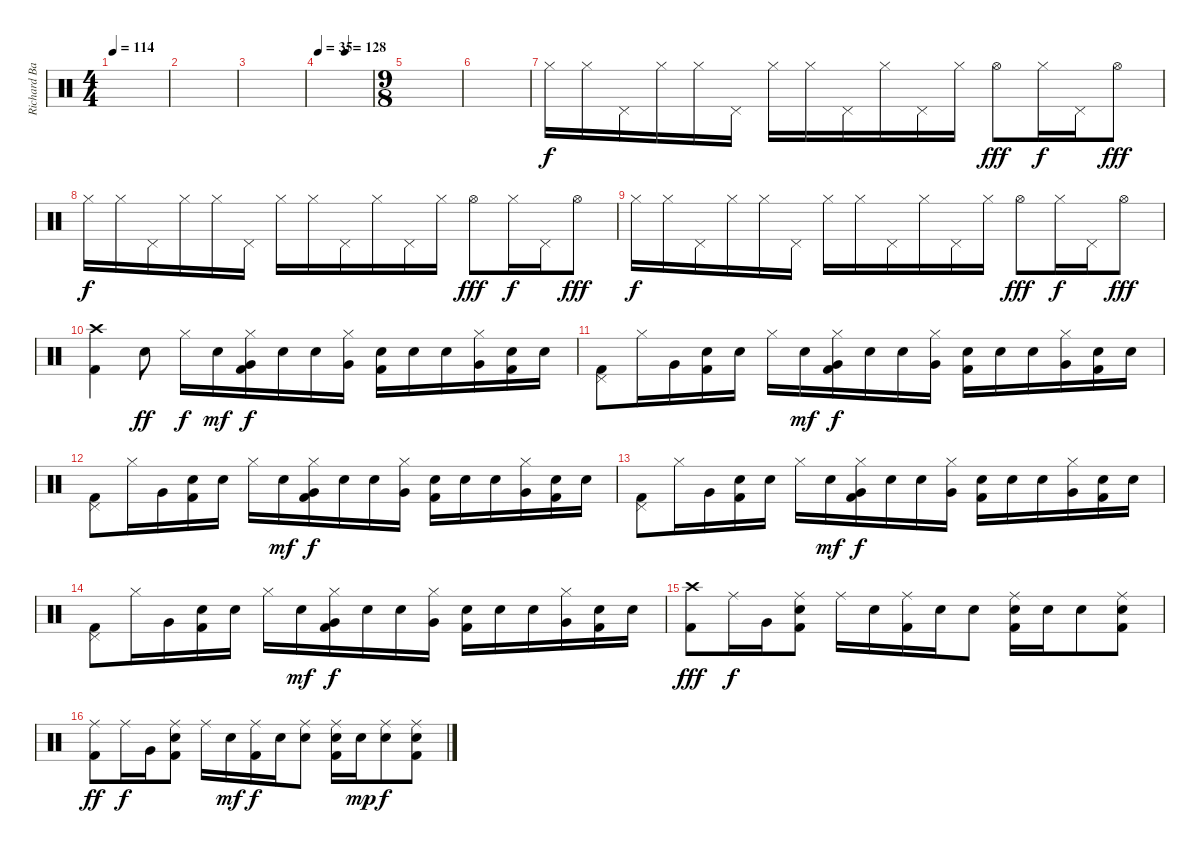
\track ("Richard Bailey" "Richard Ba") {instrument percussion}
\staff {score}
\articulation defaults
\ts (4 4)
\tempo 114
\clef neutral
\ks c
|
|
|
\tempo 35
\tempo (128 0.5)
|
\ts (9 8)
|
|
"Hi-Hat (closed)".16 "Hi-Hat (closed)".16 "Pedal Hi-Hat (hit)".16 "Hi-Hat (closed)".16 "Hi-Hat (closed)".16 "Pedal Hi-Hat (hit)".16 "Hi-Hat (closed)".16 "Hi-Hat (closed)".16 "Pedal Hi-Hat (hit)".16 "Hi-Hat (closed)".16 "Pedal Hi-Hat (hit)".16 "Hi-Hat (closed)".16 "Hi-Hat (open)".8{dy fff} "Hi-Hat (closed)".16{dy f} "Pedal Hi-Hat (hit)".16 "Hi-Hat (open)".8{dy fff} |
"Hi-Hat (closed)".16{dy f} "Hi-Hat (closed)".16 "Pedal Hi-Hat (hit)".16 "Hi-Hat (closed)".16 "Hi-Hat (closed)".16 "Pedal Hi-Hat (hit)".16 "Hi-Hat (closed)".16 "Hi-Hat (closed)".16 "Pedal Hi-Hat (hit)".16 "Hi-Hat (closed)".16 "Pedal Hi-Hat (hit)".16 "Hi-Hat (closed)".16 "Hi-Hat (open)".8{dy fff} "Hi-Hat (closed)".16{dy f} "Pedal Hi-Hat (hit)".16 "Hi-Hat (open)".8{dy fff} |
"Hi-Hat (closed)".16{dy f} "Hi-Hat (closed)".16 "Pedal Hi-Hat (hit)".16 "Hi-Hat (closed)".16 "Hi-Hat (closed)".16 "Pedal Hi-Hat (hit)".16 "Hi-Hat (closed)".16 "Hi-Hat (closed)".16 "Pedal Hi-Hat (hit)".16 "Hi-Hat (closed)".16 "Pedal Hi-Hat (hit)".16 "Hi-Hat (closed)".16 "Hi-Hat (open)".8{dy fff} "Hi-Hat (closed)".16{dy f} "Pedal Hi-Hat (hit)".16 "Hi-Hat (open)".8{dy fff} |
("Crash high (hit)" "Kick (hit) 2").4 "Snare (hit) 2".8{dy ff} "Hi-Hat (closed)".16{dy f} "Snare (hit) 2".16{dy mf} ("Hi-Hat (closed)" "Very Low Tom (hit)" "Kick (hit) 2").16{dy f} "Snare (hit) 2".16 "Snare (hit) 2".16 ("Hi-Hat (closed)" "Very Low Tom (hit)").16 ("Snare (hit) 2" "Kick (hit) 2").16 "Snare (hit) 2".16 "Snare (hit) 2".16 ("Hi-Hat (closed)" "Very Low Tom (hit)").16 ("Snare (hit) 2" "Kick (hit) 2").16 "Snare (hit) 2".16 |
("Pedal Hi-Hat (hit)" "Kick (hit) 2").8 "Hi-Hat (closed)".16 "Very Low Tom (hit)".16 ("Snare (hit) 2" "Kick (hit) 2").16 "Snare (hit) 2".16 "Hi-Hat (closed)".16 "Snare (hit) 2".16{dy mf} ("Hi-Hat (closed)" "Very Low Tom (hit)" "Kick (hit) 2").16{dy f} "Snare (hit) 2".16 "Snare (hit) 2".16 ("Hi-Hat (closed)" "Very Low Tom (hit)").16 ("Snare (hit) 2" "Kick (hit) 2").16 "Snare (hit) 2".16 "Snare (hit) 2".16 ("Hi-Hat (closed)" "Very Low Tom (hit)").16 ("Snare (hit) 2" "Kick (hit) 2").16 "Snare (hit) 2".16 |
("Pedal Hi-Hat (hit)" "Kick (hit) 2").8 "Hi-Hat (closed)".16 "Very Low Tom (hit)".16 ("Snare (hit) 2" "Kick (hit) 2").16 "Snare (hit) 2".16 "Hi-Hat (closed)".16 "Snare (hit) 2".16{dy mf} ("Hi-Hat (closed)" "Very Low Tom (hit)" "Kick (hit) 2").16{dy f} "Snare (hit) 2".16 "Snare (hit) 2".16 ("Hi-Hat (closed)" "Very Low Tom (hit)").16 ("Snare (hit) 2" "Kick (hit) 2").16 "Snare (hit) 2".16 "Snare (hit) 2".16 ("Hi-Hat (closed)" "Very Low Tom (hit)").16 ("Snare (hit) 2" "Kick (hit) 2").16 "Snare (hit) 2".16 |
("Pedal Hi-Hat (hit)" "Kick (hit) 2").8 "Hi-Hat (closed)".16 "Very Low Tom (hit)".16 ("Snare (hit) 2" "Kick (hit) 2").16 "Snare (hit) 2".16 "Hi-Hat (closed)".16 "Snare (hit) 2".16{dy mf} ("Hi-Hat (closed)" "Very Low Tom (hit)" "Kick (hit) 2").16{dy f} "Snare (hit) 2".16 "Snare (hit) 2".16 ("Hi-Hat (closed)" "Very Low Tom (hit)").16 ("Snare (hit) 2" "Kick (hit) 2").16 "Snare (hit) 2".16 "Snare (hit) 2".16 ("Hi-Hat (closed)" "Very Low Tom (hit)").16 ("Snare (hit) 2" "Kick (hit) 2").16 "Snare (hit) 2".16 |
("Pedal Hi-Hat (hit)" "Kick (hit) 2").8 "Hi-Hat (closed)".16 "Very Low Tom (hit)".16 ("Snare (hit) 2" "Kick (hit) 2").16 "Snare (hit) 2".16 "Hi-Hat (closed)".16 "Snare (hit) 2".16{dy mf} ("Hi-Hat (closed)" "Very Low Tom (hit)" "Kick (hit) 2").16{dy f} "Snare (hit) 2".16 "Snare (hit) 2".16 ("Hi-Hat (closed)" "Very Low Tom (hit)").16 ("Snare (hit) 2" "Kick (hit) 2").16 "Snare (hit) 2".16 "Snare (hit) 2".16 ("Hi-Hat (closed)" "Very Low Tom (hit)").16 ("Snare (hit) 2" "Kick (hit) 2").16 "Snare (hit) 2".16 |
("Crash high (hit)" "Kick (hit) 2").8{dy fff} "Ride (middle)".16{dy f} "Very Low Tom (hit)".16 ("Ride (middle)" "Snare (hit) 2" "Kick (hit) 2").8 "Ride (middle)".16 "Snare (hit) 2".16 ("Ride (middle)" "Kick (hit) 2").16 "Snare (hit) 2".16 "Snare (hit) 2".8 ("Ride (middle)" "Snare (hit) 2" "Kick (hit) 2").16 "Snare (hit) 2".16 "Snare (hit) 2".8 ("Ride (middle)" "Snare (hit) 2" "Kick (hit) 2").8 |
("Ride (middle)" "Kick (hit) 2").8{dy ff} "Ride (middle)".16{dy f} "Very Low Tom (hit)".16 ("Ride (middle)" "Snare (hit) 2" "Kick (hit) 2").8 "Ride (middle)".16 "Snare (hit) 2".16{dy mf} ("Ride (middle)" "Kick (hit) 2").16{dy f} "Snare (hit) 2".16 ("Ride (middle)" "Snare (hit) 2").8 ("Ride (middle)" "Snare (hit) 2" "Kick (hit) 2").16 "Snare (hit) 2".16{dy mp} ("Ride (middle)" "Snare (hit) 2").8{dy f} ("Ride (middle)" "Snare (hit) 2" "Kick (hit) 2").8
